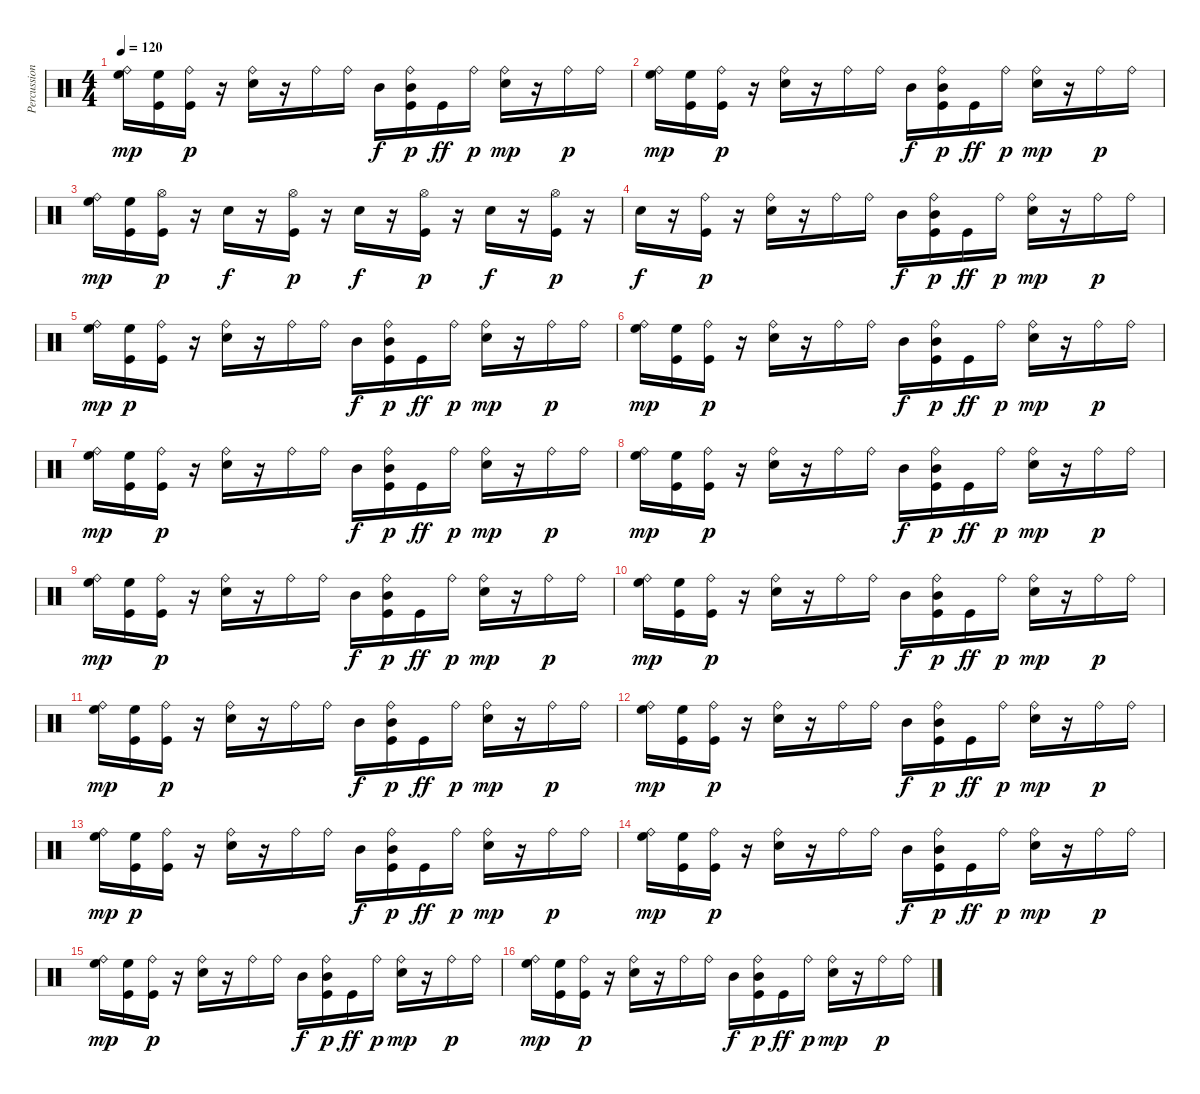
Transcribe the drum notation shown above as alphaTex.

\track ("Percussions" "Percussion") {instrument percussion}
\staff {score}
\articulation defaults
\ts (4 4)
\tempo 120
\clef neutral
\ks c
("High Floor Tom (hit)" "Ride (bell)").16{dy mp} ("Kick (hit)" "High Floor Tom (hit)").16 ("Kick (hit)" "Ride (bell)").16{dy p} r.16 ("Snare (hit) 2" "Ride (bell)").16 r.16 "Ride (bell)".16 "Ride (bell)".16 "Mid Tom (hit)".16{dy f} ("Kick (hit)" "Mid Tom (hit)" "Ride (bell)").16{dy p} "Kick (hit)".16{dy ff} "Ride (bell)".16{dy p} ("Snare (hit) 2" "Ride (bell)").16{dy mp} r.16 "Ride (bell)".16{dy p} "Ride (bell)".16 |
("High Floor Tom (hit)" "Ride (bell)").16{dy mp} ("Kick (hit)" "High Floor Tom (hit)").16 ("Kick (hit)" "Ride (bell)").16{dy p} r.16 ("Snare (hit) 2" "Ride (bell)").16 r.16 "Ride (bell)".16 "Ride (bell)".16 "Mid Tom (hit)".16{dy f} ("Kick (hit)" "Mid Tom (hit)" "Ride (bell)").16{dy p} "Kick (hit)".16{dy ff} "Ride (bell)".16{dy p} ("Snare (hit) 2" "Ride (bell)").16{dy mp} r.16 "Ride (bell)".16{dy p} "Ride (bell)".16 |
("High Floor Tom (hit)" "Ride (bell)").16{dy mp} ("Kick (hit)" "High Floor Tom (hit)").16 ("Kick (hit)" "Hi-Hat (open)").16{dy p} r.16 "Snare (hit) 2".16{dy f} r.16 ("Kick (hit)" "Hi-Hat (open)").16{dy p} r.16 "Snare (hit) 2".16{dy f} r.16 ("Kick (hit)" "Hi-Hat (open)").16{dy p} r.16 "Snare (hit) 2".16{dy f} r.16 ("Kick (hit)" "Hi-Hat (open)").16{dy p} r.16 |
"Snare (hit) 2".16{dy f} r.16 ("Kick (hit)" "Ride (bell)").16{dy p} r.16 ("Snare (hit) 2" "Ride (bell)").16 r.16 "Ride (bell)".16 "Ride (bell)".16 "Mid Tom (hit)".16{dy f} ("Kick (hit)" "Mid Tom (hit)" "Ride (bell)").16{dy p} "Kick (hit)".16{dy ff} "Ride (bell)".16{dy p} ("Snare (hit) 2" "Ride (bell)").16{dy mp} r.16 "Ride (bell)".16{dy p} "Ride (bell)".16 |
("High Floor Tom (hit)" "Ride (bell)").16{dy mp} ("Kick (hit)" "High Floor Tom (hit)").16{dy p} ("Kick (hit)" "Ride (bell)").16 r.16 ("Snare (hit) 2" "Ride (bell)").16 r.16 "Ride (bell)".16 "Ride (bell)".16 "Mid Tom (hit)".16{dy f} ("Kick (hit)" "Mid Tom (hit)" "Ride (bell)").16{dy p} "Kick (hit)".16{dy ff} "Ride (bell)".16{dy p} ("Snare (hit) 2" "Ride (bell)").16{dy mp} r.16 "Ride (bell)".16{dy p} "Ride (bell)".16 |
("High Floor Tom (hit)" "Ride (bell)").16{dy mp} ("Kick (hit)" "High Floor Tom (hit)").16 ("Kick (hit)" "Ride (bell)").16{dy p} r.16 ("Snare (hit) 2" "Ride (bell)").16 r.16 "Ride (bell)".16 "Ride (bell)".16 "Mid Tom (hit)".16{dy f} ("Kick (hit)" "Mid Tom (hit)" "Ride (bell)").16{dy p} "Kick (hit)".16{dy ff} "Ride (bell)".16{dy p} ("Snare (hit) 2" "Ride (bell)").16{dy mp} r.16 "Ride (bell)".16{dy p} "Ride (bell)".16 |
("High Floor Tom (hit)" "Ride (bell)").16{dy mp} ("Kick (hit)" "High Floor Tom (hit)").16 ("Kick (hit)" "Ride (bell)").16{dy p} r.16 ("Snare (hit) 2" "Ride (bell)").16 r.16 "Ride (bell)".16 "Ride (bell)".16 "Mid Tom (hit)".16{dy f} ("Kick (hit)" "Mid Tom (hit)" "Ride (bell)").16{dy p} "Kick (hit)".16{dy ff} "Ride (bell)".16{dy p} ("Snare (hit) 2" "Ride (bell)").16{dy mp} r.16 "Ride (bell)".16{dy p} "Ride (bell)".16 |
("High Floor Tom (hit)" "Ride (bell)").16{dy mp} ("Kick (hit)" "High Floor Tom (hit)").16 ("Kick (hit)" "Ride (bell)").16{dy p} r.16 ("Snare (hit) 2" "Ride (bell)").16 r.16 "Ride (bell)".16 "Ride (bell)".16 "Mid Tom (hit)".16{dy f} ("Kick (hit)" "Mid Tom (hit)" "Ride (bell)").16{dy p} "Kick (hit)".16{dy ff} "Ride (bell)".16{dy p} ("Snare (hit) 2" "Ride (bell)").16{dy mp} r.16 "Ride (bell)".16{dy p} "Ride (bell)".16 |
("High Floor Tom (hit)" "Ride (bell)").16{dy mp} ("Kick (hit)" "High Floor Tom (hit)").16 ("Kick (hit)" "Ride (bell)").16{dy p} r.16 ("Snare (hit) 2" "Ride (bell)").16 r.16 "Ride (bell)".16 "Ride (bell)".16 "Mid Tom (hit)".16{dy f} ("Kick (hit)" "Mid Tom (hit)" "Ride (bell)").16{dy p} "Kick (hit)".16{dy ff} "Ride (bell)".16{dy p} ("Snare (hit) 2" "Ride (bell)").16{dy mp} r.16 "Ride (bell)".16{dy p} "Ride (bell)".16 |
("High Floor Tom (hit)" "Ride (bell)").16{dy mp} ("Kick (hit)" "High Floor Tom (hit)").16 ("Kick (hit)" "Ride (bell)").16{dy p} r.16 ("Snare (hit) 2" "Ride (bell)").16 r.16 "Ride (bell)".16 "Ride (bell)".16 "Mid Tom (hit)".16{dy f} ("Kick (hit)" "Mid Tom (hit)" "Ride (bell)").16{dy p} "Kick (hit)".16{dy ff} "Ride (bell)".16{dy p} ("Snare (hit) 2" "Ride (bell)").16{dy mp} r.16 "Ride (bell)".16{dy p} "Ride (bell)".16 |
("High Floor Tom (hit)" "Ride (bell)").16{dy mp} ("Kick (hit)" "High Floor Tom (hit)").16 ("Kick (hit)" "Ride (bell)").16{dy p} r.16 ("Snare (hit) 2" "Ride (bell)").16 r.16 "Ride (bell)".16 "Ride (bell)".16 "Mid Tom (hit)".16{dy f} ("Kick (hit)" "Mid Tom (hit)" "Ride (bell)").16{dy p} "Kick (hit)".16{dy ff} "Ride (bell)".16{dy p} ("Snare (hit) 2" "Ride (bell)").16{dy mp} r.16 "Ride (bell)".16{dy p} "Ride (bell)".16 |
("High Floor Tom (hit)" "Ride (bell)").16{dy mp} ("Kick (hit)" "High Floor Tom (hit)").16 ("Kick (hit)" "Ride (bell)").16{dy p} r.16 ("Snare (hit) 2" "Ride (bell)").16 r.16 "Ride (bell)".16 "Ride (bell)".16 "Mid Tom (hit)".16{dy f} ("Kick (hit)" "Mid Tom (hit)" "Ride (bell)").16{dy p} "Kick (hit)".16{dy ff} "Ride (bell)".16{dy p} ("Snare (hit) 2" "Ride (bell)").16{dy mp} r.16 "Ride (bell)".16{dy p} "Ride (bell)".16 |
("High Floor Tom (hit)" "Ride (bell)").16{dy mp} ("Kick (hit)" "High Floor Tom (hit)").16{dy p} ("Kick (hit)" "Ride (bell)").16 r.16 ("Snare (hit) 2" "Ride (bell)").16 r.16 "Ride (bell)".16 "Ride (bell)".16 "Mid Tom (hit)".16{dy f} ("Kick (hit)" "Mid Tom (hit)" "Ride (bell)").16{dy p} "Kick (hit)".16{dy ff} "Ride (bell)".16{dy p} ("Snare (hit) 2" "Ride (bell)").16{dy mp} r.16 "Ride (bell)".16{dy p} "Ride (bell)".16 |
("High Floor Tom (hit)" "Ride (bell)").16{dy mp} ("Kick (hit)" "High Floor Tom (hit)").16 ("Kick (hit)" "Ride (bell)").16{dy p} r.16 ("Snare (hit) 2" "Ride (bell)").16 r.16 "Ride (bell)".16 "Ride (bell)".16 "Mid Tom (hit)".16{dy f} ("Kick (hit)" "Mid Tom (hit)" "Ride (bell)").16{dy p} "Kick (hit)".16{dy ff} "Ride (bell)".16{dy p} ("Snare (hit) 2" "Ride (bell)").16{dy mp} r.16 "Ride (bell)".16{dy p} "Ride (bell)".16 |
("High Floor Tom (hit)" "Ride (bell)").16{dy mp} ("Kick (hit)" "High Floor Tom (hit)").16 ("Kick (hit)" "Ride (bell)").16{dy p} r.16 ("Snare (hit) 2" "Ride (bell)").16 r.16 "Ride (bell)".16 "Ride (bell)".16 "Mid Tom (hit)".16{dy f} ("Kick (hit)" "Mid Tom (hit)" "Ride (bell)").16{dy p} "Kick (hit)".16{dy ff} "Ride (bell)".16{dy p} ("Snare (hit) 2" "Ride (bell)").16{dy mp} r.16 "Ride (bell)".16{dy p} "Ride (bell)".16 |
("High Floor Tom (hit)" "Ride (bell)").16{dy mp} ("Kick (hit)" "High Floor Tom (hit)").16 ("Kick (hit)" "Ride (bell)").16{dy p} r.16 ("Snare (hit) 2" "Ride (bell)").16 r.16 "Ride (bell)".16 "Ride (bell)".16 "Mid Tom (hit)".16{dy f} ("Kick (hit)" "Mid Tom (hit)" "Ride (bell)").16{dy p} "Kick (hit)".16{dy ff} "Ride (bell)".16{dy p} ("Snare (hit) 2" "Ride (bell)").16{dy mp} r.16 "Ride (bell)".16{dy p} "Ride (bell)".16
